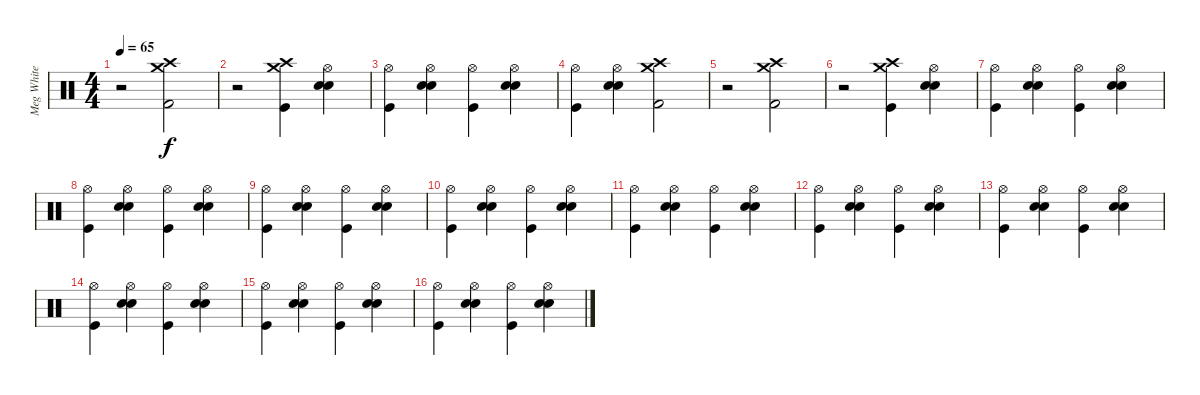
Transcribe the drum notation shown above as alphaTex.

\track ("Meg White" "Meg White") {instrument percussion}
\staff {score}
\articulation defaults
\ts (4 4)
\tempo 65
\clef neutral
\ks c
r.2{dy f} ("Kick (hit) 2" "Crash high (hit)" "Crash medium (hit)").2 |
r.2 ("Kick (hit)" "Crash high (hit)" "Crash medium (hit)").4 ("Electric Snare (hit)" "Electric Snare (hit)" "Hi-Hat (open)").4 |
("Kick (hit)" "Hi-Hat (open)").4 ("Electric Snare (hit)" "Electric Snare (hit)" "Hi-Hat (open)").4 ("Kick (hit)" "Hi-Hat (open)").4 ("Electric Snare (hit)" "Electric Snare (hit)" "Hi-Hat (open)").4 |
("Kick (hit)" "Hi-Hat (open)").4 ("Electric Snare (hit)" "Electric Snare (hit)" "Hi-Hat (open)").4 ("Kick (hit) 2" "Crash high (hit)" "Crash medium (hit)").2 |
r.2 ("Kick (hit) 2" "Crash high (hit)" "Crash medium (hit)").2 |
r.2 ("Kick (hit)" "Crash high (hit)" "Crash medium (hit)").4 ("Electric Snare (hit)" "Electric Snare (hit)" "Hi-Hat (open)").4 |
("Kick (hit)" "Hi-Hat (open)").4 ("Electric Snare (hit)" "Electric Snare (hit)" "Hi-Hat (open)").4 ("Kick (hit)" "Hi-Hat (open)").4 ("Electric Snare (hit)" "Electric Snare (hit)" "Hi-Hat (open)").4 |
("Kick (hit)" "Hi-Hat (open)").4 ("Electric Snare (hit)" "Electric Snare (hit)" "Hi-Hat (open)").4 ("Kick (hit)" "Hi-Hat (open)").4 ("Electric Snare (hit)" "Electric Snare (hit)" "Hi-Hat (open)").4 |
("Kick (hit)" "Hi-Hat (open)").4 ("Electric Snare (hit)" "Electric Snare (hit)" "Hi-Hat (open)").4 ("Kick (hit)" "Hi-Hat (open)").4 ("Electric Snare (hit)" "Electric Snare (hit)" "Hi-Hat (open)").4 |
("Kick (hit)" "Hi-Hat (open)").4 ("Electric Snare (hit)" "Electric Snare (hit)" "Hi-Hat (open)").4 ("Kick (hit)" "Hi-Hat (open)").4 ("Electric Snare (hit)" "Electric Snare (hit)" "Hi-Hat (open)").4 |
("Kick (hit)" "Hi-Hat (open)").4 ("Electric Snare (hit)" "Electric Snare (hit)" "Hi-Hat (open)").4 ("Kick (hit)" "Hi-Hat (open)").4 ("Electric Snare (hit)" "Electric Snare (hit)" "Hi-Hat (open)").4 |
("Kick (hit)" "Hi-Hat (open)").4 ("Electric Snare (hit)" "Electric Snare (hit)" "Hi-Hat (open)").4 ("Kick (hit)" "Hi-Hat (open)").4 ("Electric Snare (hit)" "Electric Snare (hit)" "Hi-Hat (open)").4 |
("Kick (hit)" "Hi-Hat (open)").4 ("Electric Snare (hit)" "Electric Snare (hit)" "Hi-Hat (open)").4 ("Kick (hit)" "Hi-Hat (open)").4 ("Electric Snare (hit)" "Electric Snare (hit)" "Hi-Hat (open)").4 |
("Kick (hit)" "Hi-Hat (open)").4 ("Electric Snare (hit)" "Electric Snare (hit)" "Hi-Hat (open)").4 ("Kick (hit)" "Hi-Hat (open)").4 ("Electric Snare (hit)" "Electric Snare (hit)" "Hi-Hat (open)").4 |
("Kick (hit)" "Hi-Hat (open)").4 ("Electric Snare (hit)" "Electric Snare (hit)" "Hi-Hat (open)").4 ("Kick (hit)" "Hi-Hat (open)").4 ("Electric Snare (hit)" "Electric Snare (hit)" "Hi-Hat (open)").4 |
("Kick (hit)" "Hi-Hat (open)").4 ("Electric Snare (hit)" "Electric Snare (hit)" "Hi-Hat (open)").4 ("Kick (hit)" "Hi-Hat (open)").4 ("Electric Snare (hit)" "Electric Snare (hit)" "Hi-Hat (open)").4
